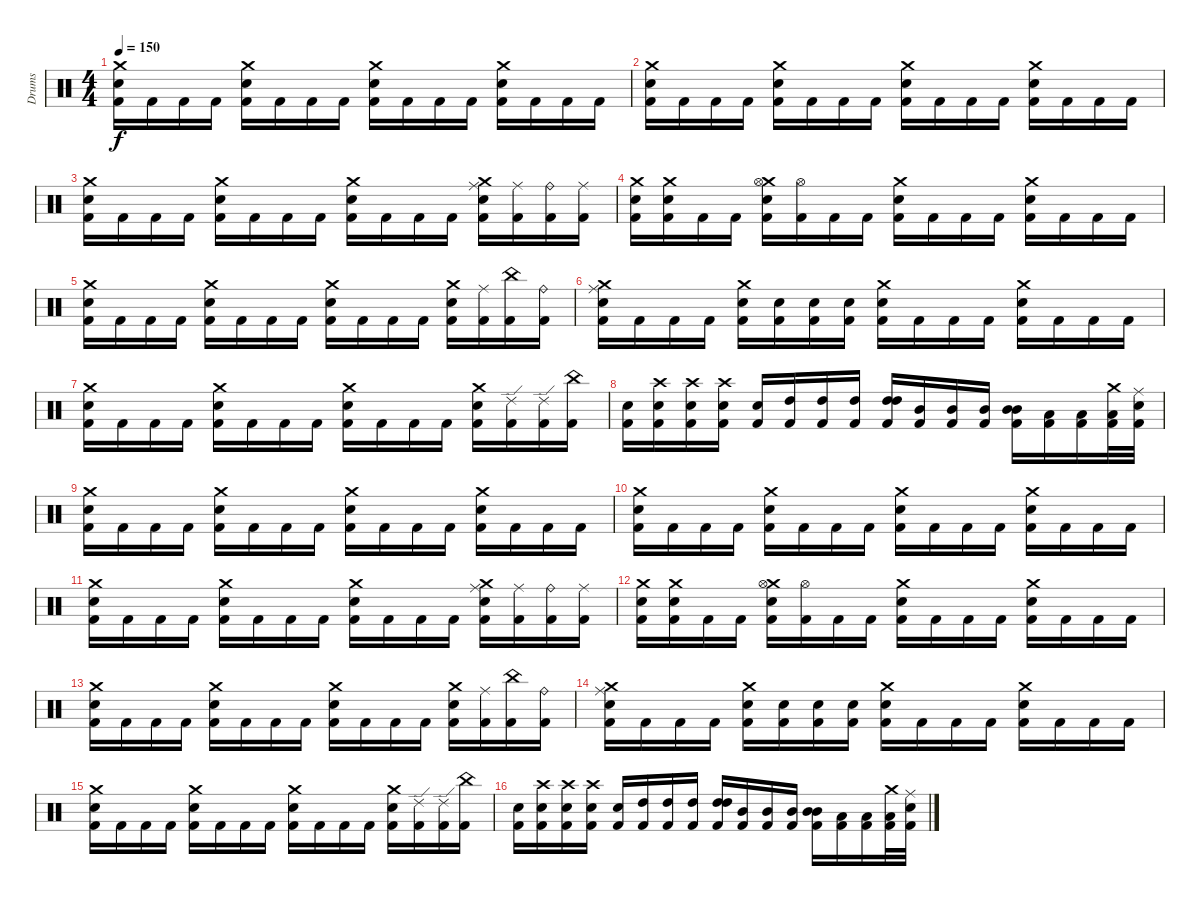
\track ("Drums" "Drums") {instrument percussion}
\staff {score}
\articulation defaults
\ts (4 4)
\tempo 150
\clef neutral
\ks c
("Crash medium (hit)" "Electric Snare (hit)" "Kick (hit) 2").16{dy f} "Kick (hit) 2".16 "Kick (hit) 2".16 "Kick (hit) 2".16 ("Crash medium (hit)" "Electric Snare (hit)" "Kick (hit) 2").16 "Kick (hit) 2".16 "Kick (hit) 2".16 "Kick (hit) 2".16 ("Crash medium (hit)" "Electric Snare (hit)" "Kick (hit) 2").16 "Kick (hit) 2".16 "Kick (hit) 2".16 "Kick (hit) 2".16 ("Crash medium (hit)" "Electric Snare (hit)" "Kick (hit) 2").16 "Kick (hit) 2".16 "Kick (hit) 2".16 "Kick (hit) 2".16 |
("Crash medium (hit)" "Electric Snare (hit)" "Kick (hit) 2").16 "Kick (hit) 2".16 "Kick (hit) 2".16 "Kick (hit) 2".16 ("Crash medium (hit)" "Electric Snare (hit)" "Kick (hit) 2").16 "Kick (hit) 2".16 "Kick (hit) 2".16 "Kick (hit) 2".16 ("Crash medium (hit)" "Electric Snare (hit)" "Kick (hit) 2").16 "Kick (hit) 2".16 "Kick (hit) 2".16 "Kick (hit) 2".16 ("Crash medium (hit)" "Electric Snare (hit)" "Kick (hit) 2").16 "Kick (hit) 2".16 "Kick (hit) 2".16 "Kick (hit) 2".16 |
("Crash medium (hit)" "Electric Snare (hit)" "Kick (hit) 2").16 "Kick (hit) 2".16 "Kick (hit) 2".16 "Kick (hit) 2".16 ("Crash medium (hit)" "Electric Snare (hit)" "Kick (hit) 2").16 "Kick (hit) 2".16 "Kick (hit) 2".16 "Kick (hit) 2".16 ("Crash medium (hit)" "Electric Snare (hit)" "Kick (hit) 2").16 "Kick (hit) 2".16 "Kick (hit) 2".16 "Kick (hit) 2".16 ("Crash medium (hit)" "Ride (middle)" "Electric Snare (hit)" "Kick (hit) 2").16 ("Ride (middle)" "Kick (hit) 2").16 ("Ride (bell)" "Kick (hit) 2").16 ("Ride (middle)" "Kick (hit) 2").16 |
("Crash medium (hit)" "Electric Snare (hit)" "Kick (hit) 2").16 ("Crash medium (hit)" "Electric Snare (hit)" "Kick (hit) 2").16 "Kick (hit) 2".16 "Kick (hit) 2".16 ("Crash medium (hit)" "Hi-Hat (open)" "Electric Snare (hit)" "Kick (hit) 2").16 ("Hi-Hat (open)" "Kick (hit) 2").16 "Kick (hit) 2".16 "Kick (hit) 2".16 ("Crash medium (hit)" "Electric Snare (hit)" "Kick (hit) 2").16 "Kick (hit) 2".16 "Kick (hit) 2".16 "Kick (hit) 2".16 ("Crash medium (hit)" "Electric Snare (hit)" "Kick (hit) 2").16 "Kick (hit) 2".16 "Kick (hit) 2".16 "Kick (hit) 2".16 |
("Crash medium (hit)" "Electric Snare (hit)" "Kick (hit) 2").16 "Kick (hit) 2".16 "Kick (hit) 2".16 "Kick (hit) 2".16 ("Crash medium (hit)" "Electric Snare (hit)" "Kick (hit) 2").16 "Kick (hit) 2".16 "Kick (hit) 2".16 "Kick (hit) 2".16 ("Crash medium (hit)" "Electric Snare (hit)" "Kick (hit) 2").16 "Kick (hit) 2".16 "Kick (hit) 2".16 "Kick (hit) 2".16 ("Crash medium (hit)" "Electric Snare (hit)" "Kick (hit) 2").16 ("Ride (middle)" "Kick (hit) 2").16 ("China (hit)" "Kick (hit) 2").16 ("Ride (bell)" "Kick (hit) 2").16 |
("Crash medium (hit)" "Ride (middle)" "Electric Snare (hit)" "Kick (hit) 2").16 "Kick (hit) 2".16 "Kick (hit) 2".16 "Kick (hit) 2".16 ("Crash medium (hit)" "Electric Snare (hit)" "Kick (hit) 2").16 ("Electric Snare (hit)" "Kick (hit) 2").16 ("Electric Snare (hit)" "Kick (hit) 2").16 ("Electric Snare (hit)" "Kick (hit) 2").16 ("Crash medium (hit)" "Electric Snare (hit)" "Kick (hit) 2").16 "Kick (hit) 2".16 "Kick (hit) 2".16 "Kick (hit) 2".16 ("Crash medium (hit)" "Electric Snare (hit)" "Kick (hit) 2").16 "Kick (hit) 2".16 "Kick (hit) 2".16 "Kick (hit) 2".16 |
("Crash medium (hit)" "Electric Snare (hit)" "Kick (hit) 2").16 "Kick (hit) 2".16 "Kick (hit) 2".16 "Kick (hit) 2".16 ("Crash medium (hit)" "Electric Snare (hit)" "Kick (hit) 2").16 "Kick (hit) 2".16 "Kick (hit) 2".16 "Kick (hit) 2".16 ("Crash medium (hit)" "Electric Snare (hit)" "Kick (hit) 2").16 "Kick (hit) 2".16 "Kick (hit) 2".16 "Kick (hit) 2".16 ("Crash medium (hit)" "Electric Snare (hit)" "Kick (hit) 2").16 ("Ride (edge) 2" "Kick (hit) 2").16 ("Ride (edge) 2" "Kick (hit) 2").16 ("China (hit)" "Kick (hit) 2").16 |
("Electric Snare (hit)" "Kick (hit) 2").16 ("Electric Snare (hit)" "Crash high (hit)" "Kick (hit) 2").16 ("Electric Snare (hit)" "Crash high (hit)" "Kick (hit) 2").16 ("Crash high (hit)" "Electric Snare (hit)" "Kick (hit) 2").16 ("Electric Snare (hit)" "Kick (hit) 2").16 ("High Tom (hit)" "Kick (hit) 2").16 ("High Tom (hit)" "Kick (hit) 2").16 ("High Tom (hit)" "Kick (hit) 2").16 ("High Tom (hit)" "High Tom (hit)" "Kick (hit) 2").16 ("Mid Tom (hit)" "Kick (hit) 2").16 ("Mid Tom (hit)" "Kick (hit) 2").16 ("Mid Tom (hit)" "Kick (hit) 2").16 ("Mid Tom (hit)" "Mid Tom (hit)" "Kick (hit) 2").16 ("Low Tom (hit)" "Kick (hit) 2").16 ("Low Tom (hit)" "Kick (hit) 2").16 ("Crash medium (hit)" "Low Tom (hit)" "Kick (hit) 2").32 ("Ride (middle)" "Electric Snare (hit)" "Kick (hit) 2").32 |
("Crash medium (hit)" "Electric Snare (hit)" "Kick (hit) 2").16 "Kick (hit) 2".16 "Kick (hit) 2".16 "Kick (hit) 2".16 ("Crash medium (hit)" "Electric Snare (hit)" "Kick (hit) 2").16 "Kick (hit) 2".16 "Kick (hit) 2".16 "Kick (hit) 2".16 ("Crash medium (hit)" "Electric Snare (hit)" "Kick (hit) 2").16 "Kick (hit) 2".16 "Kick (hit) 2".16 "Kick (hit) 2".16 ("Crash medium (hit)" "Electric Snare (hit)" "Kick (hit) 2").16 "Kick (hit) 2".16 "Kick (hit) 2".16 "Kick (hit) 2".16 |
("Crash medium (hit)" "Electric Snare (hit)" "Kick (hit) 2").16 "Kick (hit) 2".16 "Kick (hit) 2".16 "Kick (hit) 2".16 ("Crash medium (hit)" "Electric Snare (hit)" "Kick (hit) 2").16 "Kick (hit) 2".16 "Kick (hit) 2".16 "Kick (hit) 2".16 ("Crash medium (hit)" "Electric Snare (hit)" "Kick (hit) 2").16 "Kick (hit) 2".16 "Kick (hit) 2".16 "Kick (hit) 2".16 ("Crash medium (hit)" "Electric Snare (hit)" "Kick (hit) 2").16 "Kick (hit) 2".16 "Kick (hit) 2".16 "Kick (hit) 2".16 |
("Crash medium (hit)" "Electric Snare (hit)" "Kick (hit) 2").16 "Kick (hit) 2".16 "Kick (hit) 2".16 "Kick (hit) 2".16 ("Crash medium (hit)" "Electric Snare (hit)" "Kick (hit) 2").16 "Kick (hit) 2".16 "Kick (hit) 2".16 "Kick (hit) 2".16 ("Crash medium (hit)" "Electric Snare (hit)" "Kick (hit) 2").16 "Kick (hit) 2".16 "Kick (hit) 2".16 "Kick (hit) 2".16 ("Crash medium (hit)" "Ride (middle)" "Electric Snare (hit)" "Kick (hit) 2").16 ("Ride (middle)" "Kick (hit) 2").16 ("Ride (bell)" "Kick (hit) 2").16 ("Ride (middle)" "Kick (hit) 2").16 |
("Crash medium (hit)" "Electric Snare (hit)" "Kick (hit) 2").16 ("Crash medium (hit)" "Electric Snare (hit)" "Kick (hit) 2").16 "Kick (hit) 2".16 "Kick (hit) 2".16 ("Crash medium (hit)" "Hi-Hat (open)" "Electric Snare (hit)" "Kick (hit) 2").16 ("Hi-Hat (open)" "Kick (hit) 2").16 "Kick (hit) 2".16 "Kick (hit) 2".16 ("Crash medium (hit)" "Electric Snare (hit)" "Kick (hit) 2").16 "Kick (hit) 2".16 "Kick (hit) 2".16 "Kick (hit) 2".16 ("Crash medium (hit)" "Electric Snare (hit)" "Kick (hit) 2").16 "Kick (hit) 2".16 "Kick (hit) 2".16 "Kick (hit) 2".16 |
("Crash medium (hit)" "Electric Snare (hit)" "Kick (hit) 2").16 "Kick (hit) 2".16 "Kick (hit) 2".16 "Kick (hit) 2".16 ("Crash medium (hit)" "Electric Snare (hit)" "Kick (hit) 2").16 "Kick (hit) 2".16 "Kick (hit) 2".16 "Kick (hit) 2".16 ("Crash medium (hit)" "Electric Snare (hit)" "Kick (hit) 2").16 "Kick (hit) 2".16 "Kick (hit) 2".16 "Kick (hit) 2".16 ("Crash medium (hit)" "Electric Snare (hit)" "Kick (hit) 2").16 ("Ride (middle)" "Kick (hit) 2").16 ("China (hit)" "Kick (hit) 2").16 ("Ride (bell)" "Kick (hit) 2").16 |
("Crash medium (hit)" "Ride (middle)" "Electric Snare (hit)" "Kick (hit) 2").16 "Kick (hit) 2".16 "Kick (hit) 2".16 "Kick (hit) 2".16 ("Crash medium (hit)" "Electric Snare (hit)" "Kick (hit) 2").16 ("Electric Snare (hit)" "Kick (hit) 2").16 ("Electric Snare (hit)" "Kick (hit) 2").16 ("Electric Snare (hit)" "Kick (hit) 2").16 ("Crash medium (hit)" "Electric Snare (hit)" "Kick (hit) 2").16 "Kick (hit) 2".16 "Kick (hit) 2".16 "Kick (hit) 2".16 ("Crash medium (hit)" "Electric Snare (hit)" "Kick (hit) 2").16 "Kick (hit) 2".16 "Kick (hit) 2".16 "Kick (hit) 2".16 |
("Crash medium (hit)" "Electric Snare (hit)" "Kick (hit) 2").16 "Kick (hit) 2".16 "Kick (hit) 2".16 "Kick (hit) 2".16 ("Crash medium (hit)" "Electric Snare (hit)" "Kick (hit) 2").16 "Kick (hit) 2".16 "Kick (hit) 2".16 "Kick (hit) 2".16 ("Crash medium (hit)" "Electric Snare (hit)" "Kick (hit) 2").16 "Kick (hit) 2".16 "Kick (hit) 2".16 "Kick (hit) 2".16 ("Crash medium (hit)" "Electric Snare (hit)" "Kick (hit) 2").16 ("Ride (edge) 2" "Kick (hit) 2").16 ("Ride (edge) 2" "Kick (hit) 2").16 ("China (hit)" "Kick (hit) 2").16 |
("Electric Snare (hit)" "Kick (hit) 2").16 ("Electric Snare (hit)" "Crash high (hit)" "Kick (hit) 2").16 ("Electric Snare (hit)" "Crash high (hit)" "Kick (hit) 2").16 ("Crash high (hit)" "Electric Snare (hit)" "Kick (hit) 2").16 ("Electric Snare (hit)" "Kick (hit) 2").16 ("High Tom (hit)" "Kick (hit) 2").16 ("High Tom (hit)" "Kick (hit) 2").16 ("High Tom (hit)" "Kick (hit) 2").16 ("High Tom (hit)" "High Tom (hit)" "Kick (hit) 2").16 ("Mid Tom (hit)" "Kick (hit) 2").16 ("Mid Tom (hit)" "Kick (hit) 2").16 ("Mid Tom (hit)" "Kick (hit) 2").16 ("Mid Tom (hit)" "Mid Tom (hit)" "Kick (hit) 2").16 ("Low Tom (hit)" "Kick (hit) 2").16 ("Low Tom (hit)" "Kick (hit) 2").16 ("Crash medium (hit)" "Low Tom (hit)" "Kick (hit) 2").32 ("Ride (middle)" "Electric Snare (hit)" "Kick (hit) 2").32
